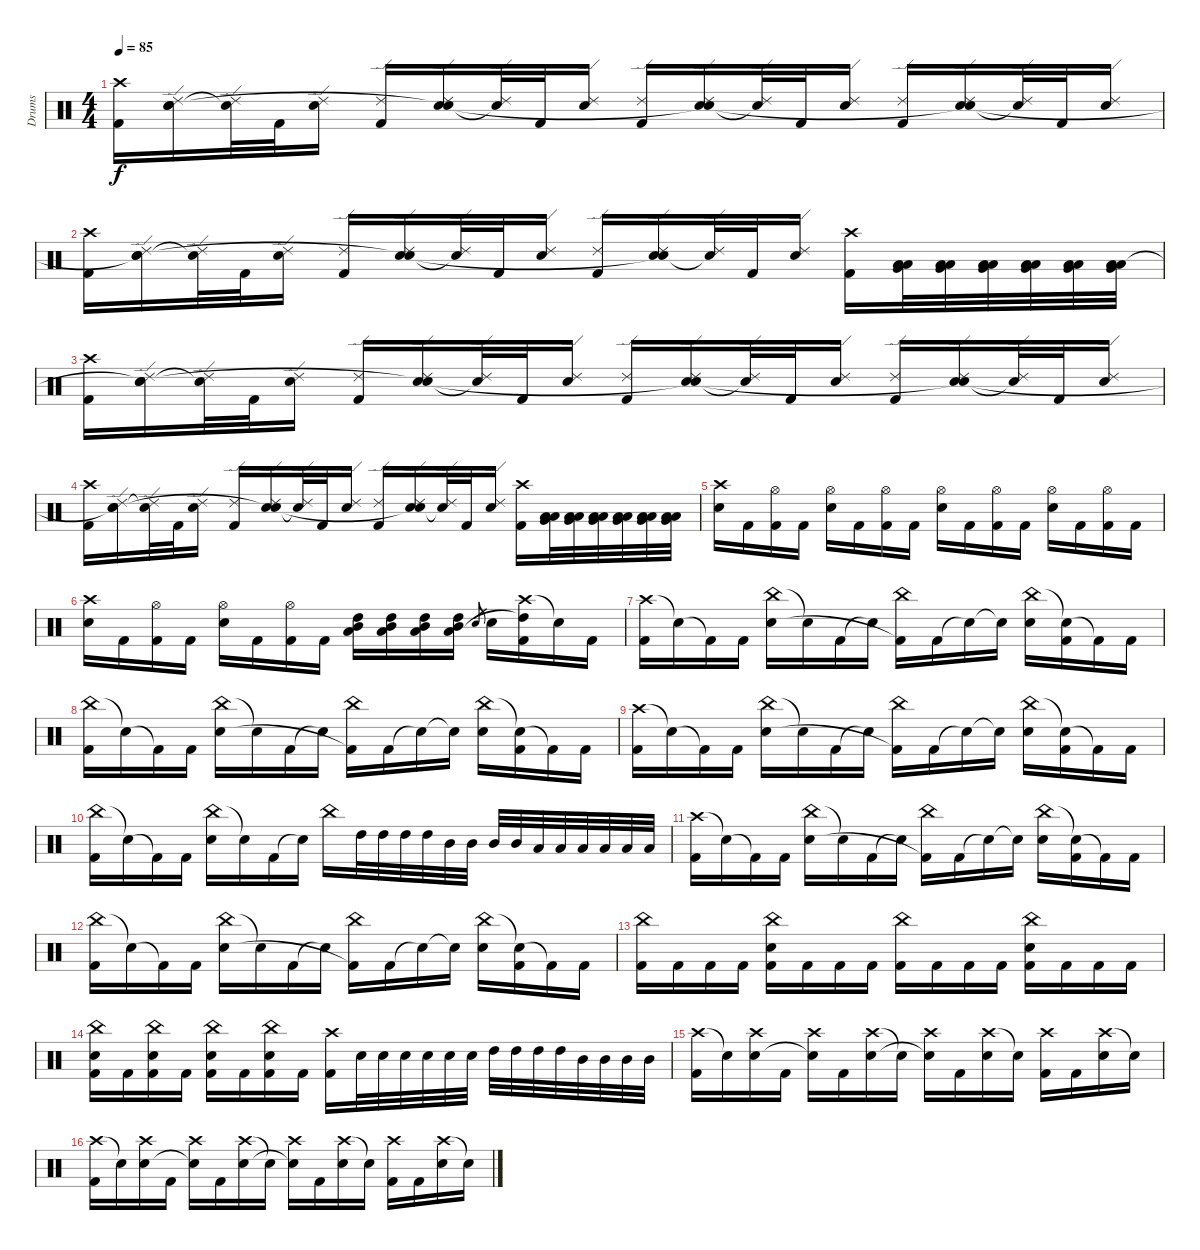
\track ("Drums" "Drums") {instrument percussion}
\staff {score}
\articulation defaults
\ts (4 4)
\tempo 85
\clef neutral
\ks c
("Crash high (hit)" "Kick (hit) 2").16{dy f} ("Ride (edge) 2" "Electric Snare (hit)" "Snare (hit)").16 ("Ride (edge) 2" "Snare (hit)"{t}).32 "Kick (hit) 2".32 ("Ride (edge) 2" "Electric Snare (hit)").16 ("Ride (edge) 2" "Kick (hit) 2").16 ("Ride (edge) 2" "Electric Snare (hit)" "Snare (hit)"{t}).16 ("Ride (edge) 2" "Snare (hit)"{t}).32 "Kick (hit) 2".32 ("Ride (edge) 2" "Electric Snare (hit)").16 ("Ride (edge) 2" "Kick (hit) 2").16 ("Ride (edge) 2" "Electric Snare (hit)" "Snare (hit)"{t}).16 ("Ride (edge) 2" "Snare (hit)"{t}).32 "Kick (hit) 2".32 ("Ride (edge) 2" "Electric Snare (hit)").16 ("Ride (edge) 2" "Kick (hit) 2").16 ("Ride (edge) 2" "Electric Snare (hit)" "Snare (hit)"{t}).16 ("Ride (edge) 2" "Snare (hit)"{t}).32 "Kick (hit) 2".32 ("Ride (edge) 2" "Electric Snare (hit)").16 |
("Crash high (hit)" "Kick (hit) 2").16 ("Ride (edge) 2" "Electric Snare (hit)" "Snare (hit)"{t}).16 ("Ride (edge) 2" "Snare (hit)"{t}).32 "Kick (hit) 2".32 ("Ride (edge) 2" "Electric Snare (hit)").16 ("Ride (edge) 2" "Kick (hit) 2").16 ("Ride (edge) 2" "Electric Snare (hit)" "Snare (hit)"{t}).16 ("Ride (edge) 2" "Snare (hit)"{t}).32 "Kick (hit) 2".32 ("Ride (edge) 2" "Electric Snare (hit)").16 ("Ride (edge) 2" "Kick (hit) 2").16 ("Ride (edge) 2" "Electric Snare (hit)" "Snare (hit)"{t}).16 ("Ride (edge) 2" "Snare (hit)"{t}).32 "Kick (hit) 2".32 ("Ride (edge) 2" "Electric Snare (hit)").16 ("Crash high (hit)" "Kick (hit) 2").16 ("Low Tom (hit)" "Very Low Tom (hit)" "Low Floor Tom (hit)").32 ("Low Tom (hit)" "Very Low Tom (hit)" "Low Floor Tom (hit)").32 ("Low Tom (hit)" "Very Low Tom (hit)" "Low Floor Tom (hit)").32 ("Low Tom (hit)" "Very Low Tom (hit)" "Low Floor Tom (hit)").32 ("Low Tom (hit)" "Very Low Tom (hit)" "Low Floor Tom (hit)").32 ("Low Tom (hit)" "Very Low Tom (hit)" "Low Floor Tom (hit)").32 |
("Crash high (hit)" "Kick (hit) 2").16 ("Ride (edge) 2" "Electric Snare (hit)" "Snare (hit)"{t}).16 ("Ride (edge) 2" "Snare (hit)"{t}).32 "Kick (hit) 2".32 ("Ride (edge) 2" "Electric Snare (hit)").16 ("Ride (edge) 2" "Kick (hit) 2").16 ("Ride (edge) 2" "Electric Snare (hit)" "Snare (hit)"{t}).16 ("Ride (edge) 2" "Snare (hit)"{t}).32 "Kick (hit) 2".32 ("Ride (edge) 2" "Electric Snare (hit)").16 ("Ride (edge) 2" "Kick (hit) 2").16 ("Ride (edge) 2" "Electric Snare (hit)" "Snare (hit)"{t}).16 ("Ride (edge) 2" "Snare (hit)"{t}).32 "Kick (hit) 2".32 ("Ride (edge) 2" "Electric Snare (hit)").16 ("Ride (edge) 2" "Kick (hit) 2").16 ("Ride (edge) 2" "Electric Snare (hit)" "Snare (hit)"{t}).16 ("Ride (edge) 2" "Snare (hit)"{t}).32 "Kick (hit) 2".32 ("Ride (edge) 2" "Electric Snare (hit)").16 |
("Crash high (hit)" "Kick (hit) 2").16 ("Ride (edge) 2" "Electric Snare (hit)" "Snare (hit)"{t}).16 ("Ride (edge) 2" "Snare (hit)"{t}).32 "Kick (hit) 2".32 ("Ride (edge) 2" "Electric Snare (hit)").16 ("Ride (edge) 2" "Kick (hit) 2").16 ("Ride (edge) 2" "Electric Snare (hit)" "Snare (hit)"{t}).16 ("Ride (edge) 2" "Snare (hit)"{t}).32 "Kick (hit) 2".32 ("Ride (edge) 2" "Electric Snare (hit)").16 ("Ride (edge) 2" "Kick (hit) 2").16 ("Ride (edge) 2" "Electric Snare (hit)" "Snare (hit)"{t}).16 ("Ride (edge) 2" "Snare (hit)"{t}).32 "Kick (hit) 2".32 ("Ride (edge) 2" "Electric Snare (hit)").16 ("Crash high (hit)" "Kick (hit) 2").16 ("Low Tom (hit)" "Very Low Tom (hit)" "Low Floor Tom (hit)").32 ("Low Tom (hit)" "Very Low Tom (hit)" "Low Floor Tom (hit)").32 ("Low Tom (hit)" "Very Low Tom (hit)" "Low Floor Tom (hit)").32 ("Low Tom (hit)" "Very Low Tom (hit)" "Low Floor Tom (hit)").32 ("Low Tom (hit)" "Very Low Tom (hit)" "Low Floor Tom (hit)").32 ("Low Tom (hit)" "Very Low Tom (hit)" "Low Floor Tom (hit)").32 |
("Crash high (hit)" "Electric Snare (hit)").16 "Kick (hit) 2".16 ("Hi-Hat (open)" "Kick (hit) 2").16 "Kick (hit) 2".16 ("Hi-Hat (open)" "Electric Snare (hit)").16 "Kick (hit) 2".16 ("Hi-Hat (open)" "Kick (hit) 2").16 "Kick (hit) 2".16 ("Hi-Hat (open)" "Electric Snare (hit)").16 "Kick (hit) 2".16 ("Hi-Hat (open)" "Kick (hit) 2").16 "Kick (hit) 2".16 ("Hi-Hat (open)" "Electric Snare (hit)").16 "Kick (hit) 2".16 ("Hi-Hat (open)" "Kick (hit) 2").16 "Kick (hit) 2".16 |
("Crash high (hit)" "Electric Snare (hit)").16 "Kick (hit) 2".16 ("Hi-Hat (open)" "Kick (hit) 2").16 "Kick (hit) 2".16 ("Hi-Hat (open)" "Electric Snare (hit)").16 "Kick (hit) 2".16 ("Hi-Hat (open)" "Kick (hit) 2").16 "Kick (hit) 2".16 ("Mid Tom (hit)" "Low Tom (hit)" "High Tom (hit)").16 ("Mid Tom (hit)" "Low Tom (hit)" "High Tom (hit)").16 ("Mid Tom (hit)" "Low Tom (hit)" "High Tom (hit)").16 ("Mid Tom (hit)" "Low Tom (hit)" "High Tom (hit)").16 "Electric Snare (hit)".8{gr} "Electric Snare (hit)".16 ("Crash high (hit)" "High Tom (hit)"{t} "Kick (hit) 2").16 "Snare (hit)"{t}.16 "Kick (hit) 2".16 |
("Crash high (hit)" "Kick (hit) 2").16 "Snare (hit)"{t}.16 "Kick (hit) 2"{t}.16 "Kick (hit) 2".16 ("China (hit)" "Electric Snare (hit)").16 "Snare (hit)"{t}.16 "Kick (hit) 2".16 "Snare (hit)"{t}.16 ("China (hit)" "Kick (hit) 2"{t}).16 "Kick (hit) 2".16 "Snare (hit)"{t}.16 "Snare (hit)"{t}.16 ("China (hit)" "Electric Snare (hit)").16 ("Snare (hit)"{t} "Kick (hit) 2").16 "Kick (hit) 2"{t}.16 "Kick (hit) 2".16 |
("China (hit)" "Kick (hit) 2").16 "Snare (hit)"{t}.16 "Kick (hit) 2"{t}.16 "Kick (hit) 2".16 ("China (hit)" "Electric Snare (hit)").16 "Snare (hit)"{t}.16 "Kick (hit) 2".16 "Snare (hit)"{t}.16 ("China (hit)" "Kick (hit) 2"{t}).16 "Kick (hit) 2".16 "Snare (hit)"{t}.16 "Snare (hit)"{t}.16 ("China (hit)" "Electric Snare (hit)").16 ("Snare (hit)"{t} "Kick (hit) 2").16 "Kick (hit) 2"{t}.16 "Kick (hit) 2".16 |
("Crash high (hit)" "Kick (hit) 2").16 "Snare (hit)"{t}.16 "Kick (hit) 2"{t}.16 "Kick (hit) 2".16 ("China (hit)" "Electric Snare (hit)").16 "Snare (hit)"{t}.16 "Kick (hit) 2".16 "Snare (hit)"{t}.16 ("China (hit)" "Kick (hit) 2"{t}).16 "Kick (hit) 2".16 "Snare (hit)"{t}.16 "Snare (hit)"{t}.16 ("China (hit)" "Electric Snare (hit)").16 ("Snare (hit)"{t} "Kick (hit) 2").16 "Kick (hit) 2"{t}.16 "Kick (hit) 2".16 |
("China (hit)" "Kick (hit) 2").16 "Snare (hit)"{t}.16 "Kick (hit) 2"{t}.16 "Kick (hit) 2".16 ("China (hit)" "Electric Snare (hit)").16 "Snare (hit)"{t}.16 "Kick (hit) 2".16 "Snare (hit)"{t}.16 "China (hit)".16 "High Tom (hit)".32 "High Tom (hit)".32 "High Tom (hit)".32 "High Tom (hit)".32 "Mid Tom (hit)".32 "Mid Tom (hit)".32 "Mid Tom (hit)".32 "Mid Tom (hit)".32 "Low Tom (hit)".32 "Low Tom (hit)".32 "Low Tom (hit)".32 "Low Tom (hit)".32 "Low Tom (hit)".32 "Low Tom (hit)".32 |
("Crash high (hit)" "Kick (hit) 2").16 "Snare (hit)"{t}.16 "Kick (hit) 2"{t}.16 "Kick (hit) 2".16 ("China (hit)" "Electric Snare (hit)").16 "Snare (hit)"{t}.16 "Kick (hit) 2".16 "Snare (hit)"{t}.16 ("China (hit)" "Kick (hit) 2"{t}).16 "Kick (hit) 2".16 "Snare (hit)"{t}.16 "Snare (hit)"{t}.16 ("China (hit)" "Electric Snare (hit)").16 ("Snare (hit)"{t} "Kick (hit) 2").16 "Kick (hit) 2"{t}.16 "Kick (hit) 2".16 |
("China (hit)" "Kick (hit) 2").16 "Snare (hit)"{t}.16 "Kick (hit) 2"{t}.16 "Kick (hit) 2".16 ("China (hit)" "Electric Snare (hit)").16 "Snare (hit)"{t}.16 "Kick (hit) 2".16 "Snare (hit)"{t}.16 ("China (hit)" "Kick (hit) 2"{t}).16 "Kick (hit) 2".16 "Snare (hit)"{t}.16 "Snare (hit)"{t}.16 ("China (hit)" "Electric Snare (hit)").16 ("Snare (hit)"{t} "Kick (hit) 2").16 "Kick (hit) 2"{t}.16 "Kick (hit) 2".16 |
("China (hit)" "Kick (hit) 2").16 "Kick (hit) 2".16 "Kick (hit) 2".16 "Kick (hit) 2".16 ("China (hit)" "Electric Snare (hit)" "Kick (hit) 2").16 "Kick (hit) 2".16 "Kick (hit) 2".16 "Kick (hit) 2".16 ("China (hit)" "Kick (hit) 2").16 "Kick (hit) 2".16 "Kick (hit) 2".16 "Kick (hit) 2".16 ("China (hit)" "Electric Snare (hit)" "Kick (hit) 2").16 "Kick (hit) 2".16 "Kick (hit) 2".16 "Kick (hit) 2".16 |
("China (hit)" "Electric Snare (hit)" "Kick (hit) 2").16 "Kick (hit) 2".16 ("China (hit)" "Electric Snare (hit)" "Kick (hit) 2").16 "Kick (hit) 2".16 ("China (hit)" "Electric Snare (hit)" "Kick (hit) 2").16 "Kick (hit) 2".16 ("China (hit)" "Electric Snare (hit)" "Kick (hit) 2").16 "Kick (hit) 2".16 ("Crash high (hit)" "Kick (hit) 2").16 "Electric Snare (hit)".32 "Electric Snare (hit)".32 "Electric Snare (hit)".32 "Electric Snare (hit)".32 "Electric Snare (hit)".32 "Electric Snare (hit)".32 "High Tom (hit)".32 "High Tom (hit)".32 "High Tom (hit)".32 "High Tom (hit)".32 "Mid Tom (hit)".32 "Mid Tom (hit)".32 "Mid Tom (hit)".32 "Mid Tom (hit)".32 |
("Crash high (hit)" "Kick (hit) 2").16 "Snare (hit)"{t}.16 ("Crash high (hit)" "Electric Snare (hit)").16 "Kick (hit) 2".16 ("Crash high (hit)" "Snare (hit)"{t}).16 "Kick (hit) 2".16 ("Crash high (hit)" "Electric Snare (hit)").16 "Snare (hit)"{t}.16 ("Crash high (hit)" "Snare (hit)"{t}).16 "Kick (hit) 2".16 ("Crash high (hit)" "Electric Snare (hit)").16 "Snare (hit)"{t}.16 ("Crash high (hit)" "Kick (hit) 2").16 "Kick (hit) 2".16 ("Crash high (hit)" "Electric Snare (hit)").16 "Snare (hit)"{t}.16 |
("Crash high (hit)" "Kick (hit) 2").16 "Snare (hit)"{t}.16 ("Crash high (hit)" "Electric Snare (hit)").16 "Kick (hit) 2".16 ("Crash high (hit)" "Snare (hit)"{t}).16 "Kick (hit) 2".16 ("Crash high (hit)" "Electric Snare (hit)").16 "Snare (hit)"{t}.16 ("Crash high (hit)" "Snare (hit)"{t}).16 "Kick (hit) 2".16 ("Crash high (hit)" "Electric Snare (hit)").16 "Snare (hit)"{t}.16 ("Crash high (hit)" "Kick (hit) 2").16 "Kick (hit) 2".16 ("Crash high (hit)" "Electric Snare (hit)").16 "Snare (hit)"{t}.16
